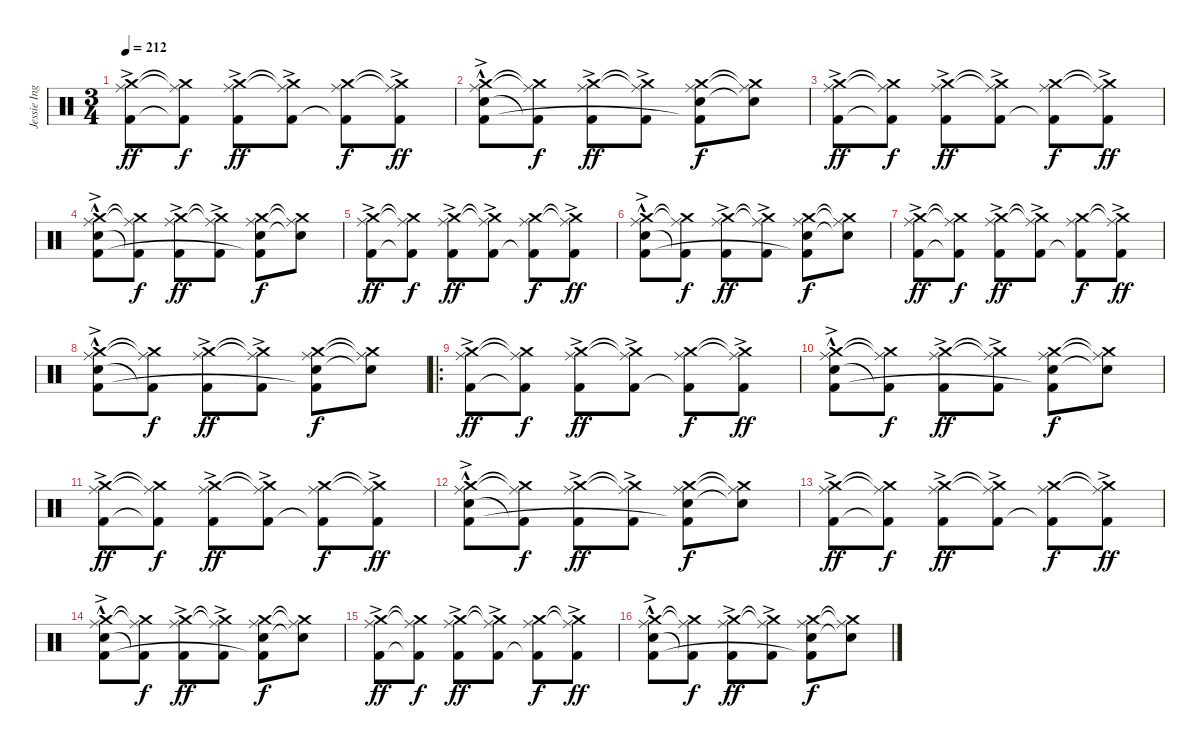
\track ("Jessie Ingelevics" "Jessie Ing") {instrument percussion}
\staff {score}
\articulation defaults
\ts (3 4)
\tempo 212
\clef neutral
\ks c
("Crash medium (hit)" "Ride (middle)" "Kick (hit) 2"{ac}).8{dy ff} ("Crash medium (hit)"{t} "Ride (middle)"{t} "Kick (hit) 2"{t}).8{dy f} ("Crash medium (hit)" "Ride (middle)" "Kick (hit) 2"{ac}).8{dy ff} ("Crash medium (hit)"{t} "Ride (middle)"{t} "Kick (hit) 2"{ac}).8 ("Crash medium (hit)" "Ride (middle)" "Kick (hit) 2"{t}).8{dy f} ("Crash medium (hit)"{t} "Ride (middle)"{t} "Kick (hit) 2"{ac}).8{dy ff} |
("Crash medium (hit)" "Ride (middle)" "Electric Snare (hit)"{hac} "Kick (hit) 2"{ac}).8 ("Crash medium (hit)"{t} "Ride (middle)"{t} "Kick (hit) 2"{t}).8{dy f} ("Crash medium (hit)" "Ride (middle)" "Kick (hit) 2"{ac}).8{dy ff} ("Crash medium (hit)"{t} "Ride (middle)"{t} "Kick (hit) 2"{ac}).8 ("Crash medium (hit)" "Ride (middle)" "Electric Snare (hit)" "Kick (hit) 2"{t}).8{dy f} ("Crash medium (hit)"{t} "Ride (middle)"{t} "Electric Snare (hit)"{t}).8 |
("Crash medium (hit)" "Ride (middle)" "Kick (hit) 2"{ac}).8{dy ff} ("Crash medium (hit)"{t} "Ride (middle)"{t} "Kick (hit) 2"{t}).8{dy f} ("Crash medium (hit)" "Ride (middle)" "Kick (hit) 2"{ac}).8{dy ff} ("Crash medium (hit)"{t} "Ride (middle)"{t} "Kick (hit) 2"{ac}).8 ("Crash medium (hit)" "Ride (middle)" "Kick (hit) 2"{t}).8{dy f} ("Crash medium (hit)"{t} "Ride (middle)"{t} "Kick (hit) 2"{ac}).8{dy ff} |
("Crash medium (hit)" "Ride (middle)" "Electric Snare (hit)"{hac} "Kick (hit) 2"{ac}).8 ("Crash medium (hit)"{t} "Ride (middle)"{t} "Kick (hit) 2"{t}).8{dy f} ("Crash medium (hit)" "Ride (middle)" "Kick (hit) 2"{ac}).8{dy ff} ("Crash medium (hit)"{t} "Ride (middle)"{t} "Kick (hit) 2"{ac}).8 ("Crash medium (hit)" "Ride (middle)" "Electric Snare (hit)" "Kick (hit) 2"{t}).8{dy f} ("Crash medium (hit)"{t} "Ride (middle)"{t} "Electric Snare (hit)"{t}).8 |
("Crash medium (hit)" "Ride (middle)" "Kick (hit) 2"{ac}).8{dy ff} ("Crash medium (hit)"{t} "Ride (middle)"{t} "Kick (hit) 2"{t}).8{dy f} ("Crash medium (hit)" "Ride (middle)" "Kick (hit) 2"{ac}).8{dy ff} ("Crash medium (hit)"{t} "Ride (middle)"{t} "Kick (hit) 2"{ac}).8 ("Crash medium (hit)" "Ride (middle)" "Kick (hit) 2"{t}).8{dy f} ("Crash medium (hit)"{t} "Ride (middle)"{t} "Kick (hit) 2"{ac}).8{dy ff} |
("Crash medium (hit)" "Ride (middle)" "Electric Snare (hit)"{hac} "Kick (hit) 2"{ac}).8 ("Crash medium (hit)"{t} "Ride (middle)"{t} "Kick (hit) 2"{t}).8{dy f} ("Crash medium (hit)" "Ride (middle)" "Kick (hit) 2"{ac}).8{dy ff} ("Crash medium (hit)"{t} "Ride (middle)"{t} "Kick (hit) 2"{ac}).8 ("Crash medium (hit)" "Ride (middle)" "Electric Snare (hit)" "Kick (hit) 2"{t}).8{dy f} ("Crash medium (hit)"{t} "Ride (middle)"{t} "Electric Snare (hit)"{t}).8 |
("Crash medium (hit)" "Ride (middle)" "Kick (hit) 2"{ac}).8{dy ff} ("Crash medium (hit)"{t} "Ride (middle)"{t} "Kick (hit) 2"{t}).8{dy f} ("Crash medium (hit)" "Ride (middle)" "Kick (hit) 2"{ac}).8{dy ff} ("Crash medium (hit)"{t} "Ride (middle)"{t} "Kick (hit) 2"{ac}).8 ("Crash medium (hit)" "Ride (middle)" "Kick (hit) 2"{t}).8{dy f} ("Crash medium (hit)"{t} "Ride (middle)"{t} "Kick (hit) 2"{ac}).8{dy ff} |
("Crash medium (hit)" "Ride (middle)" "Electric Snare (hit)"{hac} "Kick (hit) 2"{ac}).8 ("Crash medium (hit)"{t} "Ride (middle)"{t} "Kick (hit) 2"{t}).8{dy f} ("Crash medium (hit)" "Ride (middle)" "Kick (hit) 2"{ac}).8{dy ff} ("Crash medium (hit)"{t} "Ride (middle)"{t} "Kick (hit) 2"{ac}).8 ("Crash medium (hit)" "Ride (middle)" "Electric Snare (hit)" "Kick (hit) 2"{t}).8{dy f} ("Crash medium (hit)"{t} "Ride (middle)"{t} "Electric Snare (hit)"{t}).8 |
\ro
("Crash medium (hit)" "Ride (middle)" "Kick (hit) 2"{ac}).8{dy ff} ("Crash medium (hit)"{t} "Ride (middle)"{t} "Kick (hit) 2"{t}).8{dy f} ("Crash medium (hit)" "Ride (middle)" "Kick (hit) 2"{ac}).8{dy ff} ("Crash medium (hit)"{t} "Ride (middle)"{t} "Kick (hit) 2"{ac}).8 ("Crash medium (hit)" "Ride (middle)" "Kick (hit) 2"{t}).8{dy f} ("Crash medium (hit)"{t} "Ride (middle)"{t} "Kick (hit) 2"{ac}).8{dy ff} |
("Crash medium (hit)" "Ride (middle)" "Electric Snare (hit)"{hac} "Kick (hit) 2"{ac}).8 ("Crash medium (hit)"{t} "Ride (middle)"{t} "Kick (hit) 2"{t}).8{dy f} ("Crash medium (hit)" "Ride (middle)" "Kick (hit) 2"{ac}).8{dy ff} ("Crash medium (hit)"{t} "Ride (middle)"{t} "Kick (hit) 2"{ac}).8 ("Crash medium (hit)" "Ride (middle)" "Electric Snare (hit)" "Kick (hit) 2"{t}).8{dy f} ("Crash medium (hit)"{t} "Ride (middle)"{t} "Electric Snare (hit)"{t}).8 |
("Crash medium (hit)" "Ride (middle)" "Kick (hit) 2"{ac}).8{dy ff} ("Crash medium (hit)"{t} "Ride (middle)"{t} "Kick (hit) 2"{t}).8{dy f} ("Crash medium (hit)" "Ride (middle)" "Kick (hit) 2"{ac}).8{dy ff} ("Crash medium (hit)"{t} "Ride (middle)"{t} "Kick (hit) 2"{ac}).8 ("Crash medium (hit)" "Ride (middle)" "Kick (hit) 2"{t}).8{dy f} ("Crash medium (hit)"{t} "Ride (middle)"{t} "Kick (hit) 2"{ac}).8{dy ff} |
("Crash medium (hit)" "Ride (middle)" "Electric Snare (hit)"{hac} "Kick (hit) 2"{ac}).8 ("Crash medium (hit)"{t} "Ride (middle)"{t} "Kick (hit) 2"{t}).8{dy f} ("Crash medium (hit)" "Ride (middle)" "Kick (hit) 2"{ac}).8{dy ff} ("Crash medium (hit)"{t} "Ride (middle)"{t} "Kick (hit) 2"{ac}).8 ("Crash medium (hit)" "Ride (middle)" "Electric Snare (hit)" "Kick (hit) 2"{t}).8{dy f} ("Crash medium (hit)"{t} "Ride (middle)"{t} "Electric Snare (hit)"{t}).8 |
("Crash medium (hit)" "Ride (middle)" "Kick (hit) 2"{ac}).8{dy ff} ("Crash medium (hit)"{t} "Ride (middle)"{t} "Kick (hit) 2"{t}).8{dy f} ("Crash medium (hit)" "Ride (middle)" "Kick (hit) 2"{ac}).8{dy ff} ("Crash medium (hit)"{t} "Ride (middle)"{t} "Kick (hit) 2"{ac}).8 ("Crash medium (hit)" "Ride (middle)" "Kick (hit) 2"{t}).8{dy f} ("Crash medium (hit)"{t} "Ride (middle)"{t} "Kick (hit) 2"{ac}).8{dy ff} |
("Crash medium (hit)" "Ride (middle)" "Electric Snare (hit)"{hac} "Kick (hit) 2"{ac}).8 ("Crash medium (hit)"{t} "Ride (middle)"{t} "Kick (hit) 2"{t}).8{dy f} ("Crash medium (hit)" "Ride (middle)" "Kick (hit) 2"{ac}).8{dy ff} ("Crash medium (hit)"{t} "Ride (middle)"{t} "Kick (hit) 2"{ac}).8 ("Crash medium (hit)" "Ride (middle)" "Electric Snare (hit)" "Kick (hit) 2"{t}).8{dy f} ("Crash medium (hit)"{t} "Ride (middle)"{t} "Electric Snare (hit)"{t}).8 |
("Crash medium (hit)" "Ride (middle)" "Kick (hit) 2"{ac}).8{dy ff} ("Crash medium (hit)"{t} "Ride (middle)"{t} "Kick (hit) 2"{t}).8{dy f} ("Crash medium (hit)" "Ride (middle)" "Kick (hit) 2"{ac}).8{dy ff} ("Crash medium (hit)"{t} "Ride (middle)"{t} "Kick (hit) 2"{ac}).8 ("Crash medium (hit)" "Ride (middle)" "Kick (hit) 2"{t}).8{dy f} ("Crash medium (hit)"{t} "Ride (middle)"{t} "Kick (hit) 2"{ac}).8{dy ff} |
("Crash medium (hit)" "Ride (middle)" "Electric Snare (hit)"{hac} "Kick (hit) 2"{ac}).8 ("Crash medium (hit)"{t} "Ride (middle)"{t} "Kick (hit) 2"{t}).8{dy f} ("Crash medium (hit)" "Ride (middle)" "Kick (hit) 2"{ac}).8{dy ff} ("Crash medium (hit)"{t} "Ride (middle)"{t} "Kick (hit) 2"{ac}).8 ("Crash medium (hit)" "Ride (middle)" "Electric Snare (hit)" "Kick (hit) 2"{t}).8{dy f} ("Crash medium (hit)"{t} "Ride (middle)"{t} "Electric Snare (hit)"{t}).8
